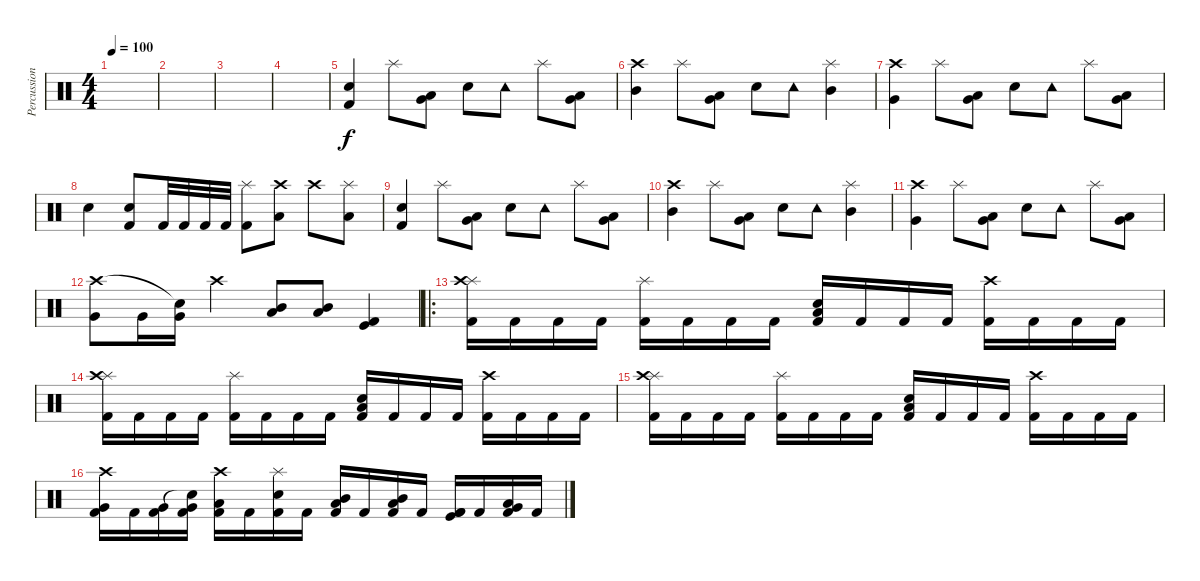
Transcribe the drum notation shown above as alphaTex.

\track ("Percussions" "Percussion") {instrument percussion}
\staff {score}
\articulation defaults
\ts (4 4)
\tempo 100
\clef neutral
\ks c
|
|
|
|
("Electric Snare (hit)" "Kick (hit) 2").4 "Splash (hit)".8 ("Low Tom (hit)" "Very Low Tom (hit)").8 "Electric Snare (hit)".8 "Tambourine (hit)".8 "Splash (hit)".8 ("Low Tom (hit)" "Very Low Tom (hit)").8 |
("Crash high (hit)" "Mid Tom (hit)").4 "Splash (hit)".8 ("Low Tom (hit)" "Very Low Tom (hit)").8 "Electric Snare (hit)".8 "Tambourine (hit)".8 ("Mid Tom (hit)" "Splash (hit)").4 |
("Very Low Tom (hit)" "Crash high (hit)").4 "Splash (hit)".8 ("Low Tom (hit)" "Very Low Tom (hit)").8 "Electric Snare (hit)".8 "Tambourine (hit)".8 "Splash (hit)".8 ("Low Tom (hit)" "Very Low Tom (hit)").8 |
"Electric Snare (hit)".4 ("Electric Snare (hit)" "Kick (hit) 2").8 "Kick (hit) 2".32 "Kick (hit) 2".32 "Kick (hit) 2".32 "Kick (hit) 2".32 ("Kick (hit) 2" "Splash (hit)").8 ("Crash high (hit)" "Low Tom (hit)").8 "Crash high (hit)".8 ("Low Tom (hit)" "Splash (hit)").8 |
("Electric Snare (hit)" "Kick (hit) 2").4 "Splash (hit)".8 ("Low Tom (hit)" "Very Low Tom (hit)").8 "Electric Snare (hit)".8 "Tambourine (hit)".8 "Splash (hit)".8 ("Low Tom (hit)" "Very Low Tom (hit)").8 |
("Crash high (hit)" "Mid Tom (hit)").4 "Splash (hit)".8 ("Low Tom (hit)" "Very Low Tom (hit)").8 "Electric Snare (hit)".8 "Tambourine (hit)".8 ("Mid Tom (hit)" "Splash (hit)").4 |
("Very Low Tom (hit)" "Crash high (hit)").4 "Splash (hit)".8 ("Low Tom (hit)" "Very Low Tom (hit)").8 "Electric Snare (hit)".8 "Tambourine (hit)".8 "Splash (hit)".8 ("Low Tom (hit)" "Very Low Tom (hit)").8 |
("Very Low Tom (hit)" "Crash high (hit)").8 "Very Low Tom (hit)".16 ("Very Low Tom (hit)" "Snare (hit)"{t}).16 "Crash high (hit)".4 ("Mid Tom (hit)" "Low Floor Tom (hit)").8 ("Mid Tom (hit)" "Low Tom (hit)").8 ("Kick (hit) 2" "Kick (hit)").4 |
\ro
("Kick (hit) 2" "Splash (hit)" "Crash high (hit)").16 "Kick (hit) 2".16 "Kick (hit) 2".16 "Kick (hit) 2".16 ("Kick (hit) 2" "Splash (hit)").16 "Kick (hit) 2".16 "Kick (hit) 2".16 "Kick (hit) 2".16 ("Kick (hit) 2" "Electric Snare (hit)" "Low Tom (hit)").16 "Kick (hit) 2".16 "Kick (hit) 2".16 "Kick (hit) 2".16 ("Kick (hit) 2" "Crash high (hit)").16 "Kick (hit) 2".16 "Kick (hit) 2".16 "Kick (hit) 2".16 |
("Kick (hit) 2" "Splash (hit)" "Crash high (hit)").16 "Kick (hit) 2".16 "Kick (hit) 2".16 "Kick (hit) 2".16 ("Kick (hit) 2" "Splash (hit)").16 "Kick (hit) 2".16 "Kick (hit) 2".16 "Kick (hit) 2".16 ("Kick (hit) 2" "Electric Snare (hit)" "Low Tom (hit)").16 "Kick (hit) 2".16 "Kick (hit) 2".16 "Kick (hit) 2".16 ("Kick (hit) 2" "Crash high (hit)").16 "Kick (hit) 2".16 "Kick (hit) 2".16 "Kick (hit) 2".16 |
("Kick (hit) 2" "Splash (hit)" "Crash high (hit)").16 "Kick (hit) 2".16 "Kick (hit) 2".16 "Kick (hit) 2".16 ("Kick (hit) 2" "Splash (hit)").16 "Kick (hit) 2".16 "Kick (hit) 2".16 "Kick (hit) 2".16 ("Kick (hit) 2" "Electric Snare (hit)" "Low Tom (hit)").16 "Kick (hit) 2".16 "Kick (hit) 2".16 "Kick (hit) 2".16 ("Kick (hit) 2" "Crash high (hit)").16 "Kick (hit) 2".16 "Kick (hit) 2".16 "Kick (hit) 2".16 |
("Very Low Tom (hit)" "Crash high (hit)" "Kick (hit) 2").16 "Kick (hit) 2".16 ("Very Low Tom (hit)" "Kick (hit) 2").16 ("Very Low Tom (hit)" "Snare (hit)"{t} "Kick (hit) 2").16 ("Crash high (hit)" "Low Tom (hit)" "Kick (hit) 2").16 "Kick (hit) 2".16 ("Splash (hit)" "Electric Snare (hit)" "Kick (hit) 2").16 "Kick (hit) 2".16 ("Mid Tom (hit)" "Low Floor Tom (hit)" "Kick (hit) 2").16 "Kick (hit) 2".16 ("Mid Tom (hit)" "Low Tom (hit)" "Kick (hit) 2").16 "Kick (hit) 2".16 ("Kick (hit) 2" "Kick (hit)" "Kick (hit) 2").16 "Kick (hit) 2".16 ("Very Low Tom (hit)" "Low Floor Tom (hit)" "Kick (hit) 2").16 "Kick (hit) 2".16
